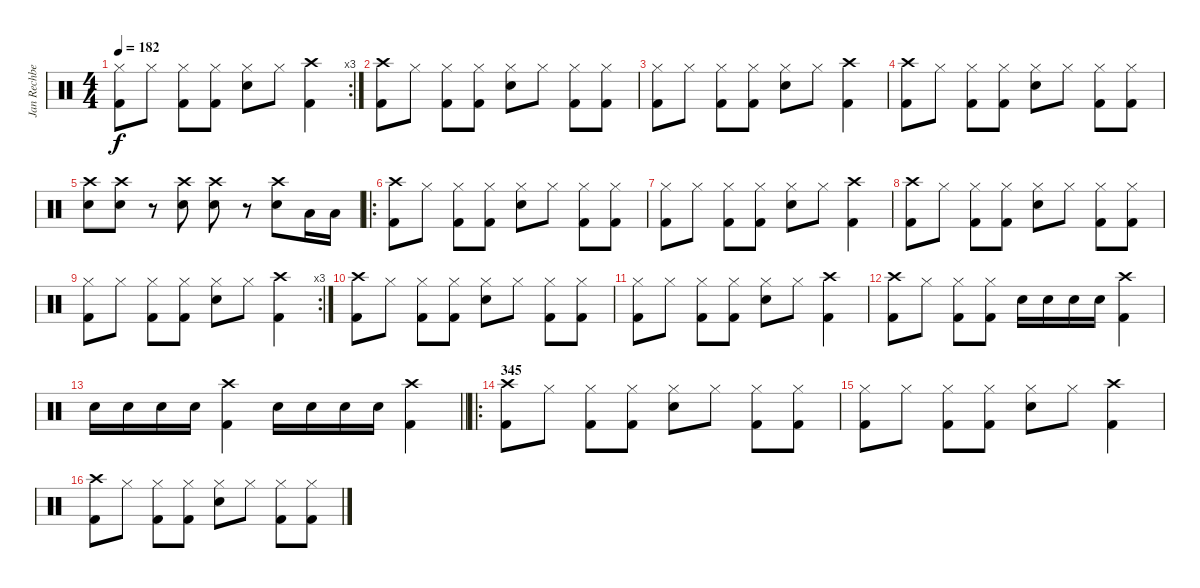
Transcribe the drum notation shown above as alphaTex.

\track ("Jan Rechberger" "Jan Rechbe") {instrument percussion}
\staff {score}
\articulation defaults
\rc 3
\ts (4 4)
\tempo 182
\clef neutral
\ks c
("Hi-Hat (closed)" "Kick (hit) 2").8{dy f} "Hi-Hat (closed)".8 ("Hi-Hat (closed)" "Kick (hit) 2").8 ("Hi-Hat (closed)" "Kick (hit) 2").8 ("Electric Snare (hit)" "Hi-Hat (closed)").8 "Hi-Hat (closed)".8 ("Crash high (hit)" "Kick (hit) 2").4 |
("Crash high (hit)" "Kick (hit) 2").8 "Hi-Hat (closed)".8 ("Hi-Hat (closed)" "Kick (hit) 2").8 ("Hi-Hat (closed)" "Kick (hit) 2").8 ("Electric Snare (hit)" "Hi-Hat (closed)").8 "Hi-Hat (closed)".8 ("Hi-Hat (closed)" "Kick (hit) 2").8 ("Hi-Hat (closed)" "Kick (hit) 2").8 |
("Hi-Hat (closed)" "Kick (hit) 2").8 "Hi-Hat (closed)".8 ("Hi-Hat (closed)" "Kick (hit) 2").8 ("Hi-Hat (closed)" "Kick (hit) 2").8 ("Electric Snare (hit)" "Hi-Hat (closed)").8 "Hi-Hat (closed)".8 ("Crash high (hit)" "Kick (hit) 2").4 |
("Crash high (hit)" "Kick (hit) 2").8 "Hi-Hat (closed)".8 ("Hi-Hat (closed)" "Kick (hit) 2").8 ("Hi-Hat (closed)" "Kick (hit) 2").8 ("Electric Snare (hit)" "Hi-Hat (closed)").8 "Hi-Hat (closed)".8 ("Hi-Hat (closed)" "Kick (hit) 2").8 ("Hi-Hat (closed)" "Kick (hit) 2").8 |
("Electric Snare (hit)" "Crash high (hit)").8 ("Electric Snare (hit)" "Crash high (hit)").8 r.8 ("Electric Snare (hit)" "Crash high (hit)").8 ("Electric Snare (hit)" "Crash high (hit)").8 r.8 ("Electric Snare (hit)" "Crash high (hit)").8 "Low Floor Tom (hit)".16 "Low Floor Tom (hit)".16 |
\ro
("Crash high (hit)" "Kick (hit) 2").8 "Hi-Hat (closed)".8 ("Hi-Hat (closed)" "Kick (hit) 2").8 ("Hi-Hat (closed)" "Kick (hit) 2").8 ("Electric Snare (hit)" "Hi-Hat (closed)").8 "Hi-Hat (closed)".8 ("Hi-Hat (closed)" "Kick (hit) 2").8 ("Hi-Hat (closed)" "Kick (hit) 2").8 |
("Hi-Hat (closed)" "Kick (hit) 2").8 "Hi-Hat (closed)".8 ("Hi-Hat (closed)" "Kick (hit) 2").8 ("Hi-Hat (closed)" "Kick (hit) 2").8 ("Electric Snare (hit)" "Hi-Hat (closed)").8 "Hi-Hat (closed)".8 ("Crash high (hit)" "Kick (hit) 2").4 |
("Crash high (hit)" "Kick (hit) 2").8 "Hi-Hat (closed)".8 ("Hi-Hat (closed)" "Kick (hit) 2").8 ("Hi-Hat (closed)" "Kick (hit) 2").8 ("Electric Snare (hit)" "Hi-Hat (closed)").8 "Hi-Hat (closed)".8 ("Hi-Hat (closed)" "Kick (hit) 2").8 ("Hi-Hat (closed)" "Kick (hit) 2").8 |
\rc 3
("Hi-Hat (closed)" "Kick (hit) 2").8 "Hi-Hat (closed)".8 ("Hi-Hat (closed)" "Kick (hit) 2").8 ("Hi-Hat (closed)" "Kick (hit) 2").8 ("Electric Snare (hit)" "Hi-Hat (closed)").8 "Hi-Hat (closed)".8 ("Crash high (hit)" "Kick (hit) 2").4 |
("Crash high (hit)" "Kick (hit) 2").8 "Hi-Hat (closed)".8 ("Hi-Hat (closed)" "Kick (hit) 2").8 ("Hi-Hat (closed)" "Kick (hit) 2").8 ("Electric Snare (hit)" "Hi-Hat (closed)").8 "Hi-Hat (closed)".8 ("Hi-Hat (closed)" "Kick (hit) 2").8 ("Hi-Hat (closed)" "Kick (hit) 2").8 |
("Hi-Hat (closed)" "Kick (hit) 2").8 "Hi-Hat (closed)".8 ("Hi-Hat (closed)" "Kick (hit) 2").8 ("Hi-Hat (closed)" "Kick (hit) 2").8 ("Electric Snare (hit)" "Hi-Hat (closed)").8 "Hi-Hat (closed)".8 ("Crash high (hit)" "Kick (hit) 2").4 |
("Crash high (hit)" "Kick (hit) 2").8 "Hi-Hat (closed)".8 ("Hi-Hat (closed)" "Kick (hit) 2").8 ("Hi-Hat (closed)" "Kick (hit) 2").8 "Electric Snare (hit)".16 "Electric Snare (hit)".16 "Electric Snare (hit)".16 "Electric Snare (hit)".16 ("Crash high (hit)" "Kick (hit) 2").4 |
\barLineRight lightlight "Electric Snare (hit)".16 "Electric Snare (hit)".16 "Electric Snare (hit)".16 "Electric Snare (hit)".16
("Crash high (hit)" "Kick (hit) 2").4 "Electric Snare (hit)".16 "Electric Snare (hit)".16 "Electric Snare (hit)".16 "Electric Snare (hit)".16 ("Crash high (hit)" "Kick (hit) 2").4 |
\ro
\section ("" "345")
("Crash high (hit)" "Kick (hit) 2").8 "Hi-Hat (closed)".8 ("Hi-Hat (closed)" "Kick (hit) 2").8 ("Hi-Hat (closed)" "Kick (hit) 2").8 ("Electric Snare (hit)" "Hi-Hat (closed)").8 "Hi-Hat (closed)".8 ("Hi-Hat (closed)" "Kick (hit) 2").8 ("Hi-Hat (closed)" "Kick (hit) 2").8 |
("Hi-Hat (closed)" "Kick (hit) 2").8 "Hi-Hat (closed)".8 ("Hi-Hat (closed)" "Kick (hit) 2").8 ("Hi-Hat (closed)" "Kick (hit) 2").8 ("Electric Snare (hit)" "Hi-Hat (closed)").8 "Hi-Hat (closed)".8 ("Crash high (hit)" "Kick (hit) 2").4 |
("Crash high (hit)" "Kick (hit) 2").8 "Hi-Hat (closed)".8 ("Hi-Hat (closed)" "Kick (hit) 2").8 ("Hi-Hat (closed)" "Kick (hit) 2").8 ("Electric Snare (hit)" "Hi-Hat (closed)").8 "Hi-Hat (closed)".8 ("Hi-Hat (closed)" "Kick (hit) 2").8 ("Hi-Hat (closed)" "Kick (hit) 2").8
